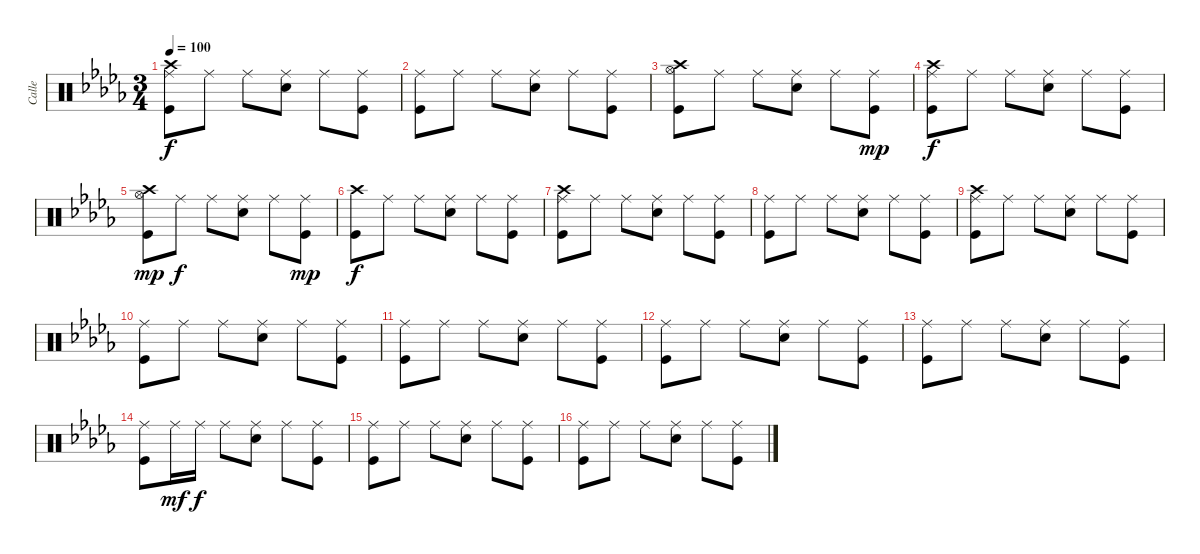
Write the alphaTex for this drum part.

\track ("Calle" "Calle") {instrument percussion}
\staff {score}
\articulation defaults
\ts (3 4)
\tempo 100
\clef neutral
\ks bbminor
("Crash high (hit)" "Ride (middle)" "Kick (hit)").8{dy f} "Ride (middle)".8 "Ride (middle)".8 ("Ride (middle)" "Electric Snare (hit)").8 "Ride (middle)".8 ("Ride (middle)" "Kick (hit)").8 |
("Ride (middle)" "Kick (hit)").8 "Ride (middle)".8 "Ride (middle)".8 ("Ride (middle)" "Electric Snare (hit)").8 "Ride (middle)".8 ("Ride (middle)" "Kick (hit)").8 |
("Crash high (hit)" "Hi-Hat (open)" "Kick (hit)").8 "Ride (middle)".8 "Ride (middle)".8 ("Ride (middle)" "Electric Snare (hit)").8 "Ride (middle)".8 ("Ride (middle)" "Kick (hit)").8{dy mp} |
("Crash high (hit)" "Ride (middle)" "Kick (hit)").8{dy f} "Ride (middle)".8 "Ride (middle)".8 ("Ride (middle)" "Electric Snare (hit)").8 "Ride (middle)".8 ("Ride (middle)" "Kick (hit)").8 |
("Crash high (hit)" "Hi-Hat (open)" "Kick (hit)").8{dy mp} "Ride (middle)".8{dy f} "Ride (middle)".8 ("Ride (middle)" "Electric Snare (hit)").8 "Ride (middle)".8 ("Ride (middle)" "Kick (hit)").8{dy mp} |
("Crash high (hit)" "Kick (hit)").8{dy f} "Ride (middle)".8 "Ride (middle)".8 ("Ride (middle)" "Electric Snare (hit)").8 "Ride (middle)".8 ("Ride (middle)" "Kick (hit)").8 |
("Crash high (hit)" "Ride (middle)" "Kick (hit)").8 "Ride (middle)".8 "Ride (middle)".8 ("Ride (middle)" "Electric Snare (hit)").8 "Ride (middle)".8 ("Ride (middle)" "Kick (hit)").8 |
("Ride (middle)" "Kick (hit)").8 "Ride (middle)".8 "Ride (middle)".8 ("Ride (middle)" "Electric Snare (hit)").8 "Ride (middle)".8 ("Ride (middle)" "Kick (hit)").8 |
("Crash high (hit)" "Ride (middle)" "Kick (hit)").8 "Ride (middle)".8 "Ride (middle)".8 ("Ride (middle)" "Electric Snare (hit)").8 "Ride (middle)".8 ("Ride (middle)" "Kick (hit)").8 |
("Ride (middle)" "Kick (hit)").8 "Ride (middle)".8 "Ride (middle)".8 ("Ride (middle)" "Electric Snare (hit)").8 "Ride (middle)".8 ("Ride (middle)" "Kick (hit)").8 |
("Ride (middle)" "Kick (hit)").8 "Ride (middle)".8 "Ride (middle)".8 ("Ride (middle)" "Electric Snare (hit)").8 "Ride (middle)".8 ("Ride (middle)" "Kick (hit)").8 |
("Ride (middle)" "Kick (hit)").8 "Ride (middle)".8 "Ride (middle)".8 ("Ride (middle)" "Electric Snare (hit)").8 "Ride (middle)".8 ("Ride (middle)" "Kick (hit)").8 |
("Ride (middle)" "Kick (hit)").8 "Ride (middle)".8 "Ride (middle)".8 ("Ride (middle)" "Electric Snare (hit)").8 "Ride (middle)".8 ("Ride (middle)" "Kick (hit)").8 |
("Ride (middle)" "Kick (hit)").8 "Ride (middle)".16{dy mf} "Ride (middle)".16{dy f} "Ride (middle)".8 ("Ride (middle)" "Electric Snare (hit)").8 "Ride (middle)".8 ("Ride (middle)" "Kick (hit)").8 |
("Ride (middle)" "Kick (hit)").8 "Ride (middle)".8 "Ride (middle)".8 ("Ride (middle)" "Electric Snare (hit)").8 "Ride (middle)".8 ("Ride (middle)" "Kick (hit)").8 |
("Ride (middle)" "Kick (hit)").8 "Ride (middle)".8 "Ride (middle)".8 ("Ride (middle)" "Electric Snare (hit)").8 "Ride (middle)".8 ("Ride (middle)" "Kick (hit)").8
